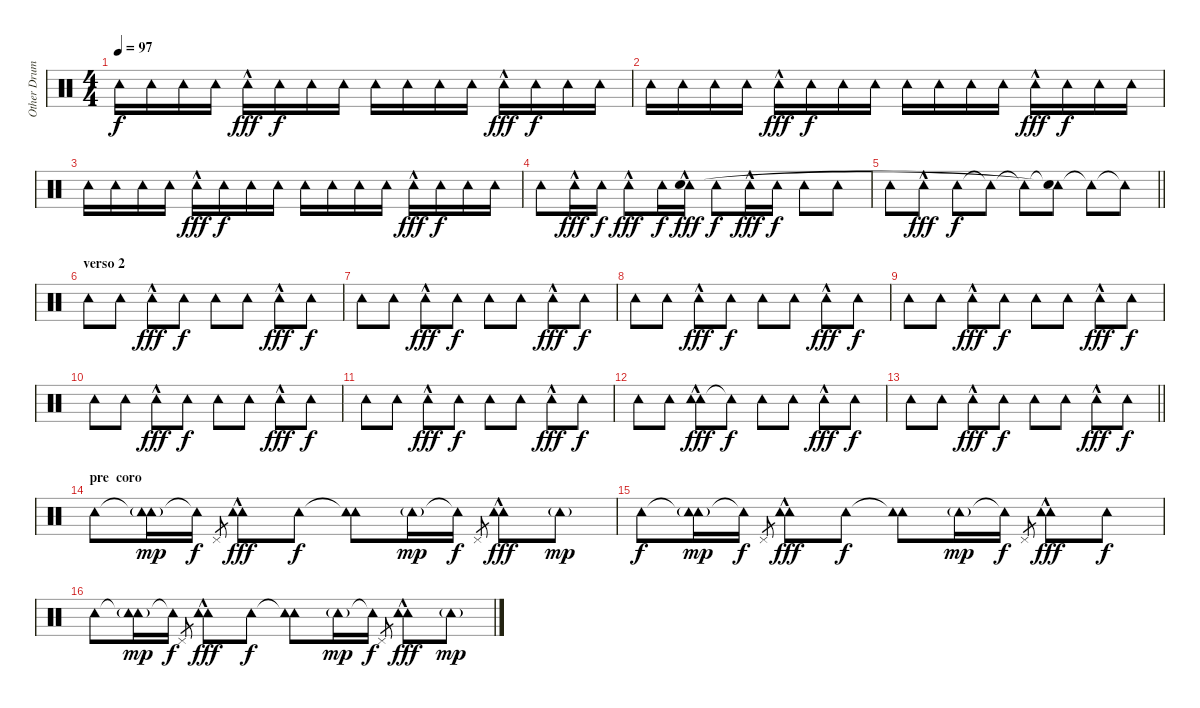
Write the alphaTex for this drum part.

\track ("Other Drumer" "Other Drum") {instrument percussion}
\staff {score}
\articulation defaults
\ts (4 4)
\tempo 97
\clef neutral
\ks c "Tambourine (hit)".16{dy f} "Tambourine (hit)".16 "Tambourine (hit)".16 "Tambourine (hit)".16 "Tambourine (hit)"{hac}.16{dy fff} "Tambourine (hit)".16{dy f} "Tambourine (hit)".16 "Tambourine (hit)".16 "Tambourine (hit)".16 "Tambourine (hit)".16 "Tambourine (hit)".16 "Tambourine (hit)".16 "Tambourine (hit)"{hac}.16{dy fff} "Tambourine (hit)".16{dy f} "Tambourine (hit)".16 "Tambourine (hit)".16
|
"Tambourine (hit)".16 "Tambourine (hit)".16 "Tambourine (hit)".16 "Tambourine (hit)".16 "Tambourine (hit)"{hac}.16{dy fff} "Tambourine (hit)".16{dy f} "Tambourine (hit)".16 "Tambourine (hit)".16 "Tambourine (hit)".16 "Tambourine (hit)".16 "Tambourine (hit)".16 "Tambourine (hit)".16 "Tambourine (hit)"{hac}.16{dy fff} "Tambourine (hit)".16{dy f} "Tambourine (hit)".16 "Tambourine (hit)".16 |
"Tambourine (hit)".16 "Tambourine (hit)".16 "Tambourine (hit)".16 "Tambourine (hit)".16 "Tambourine (hit)"{hac}.16{dy fff} "Tambourine (hit)".16{dy f} "Tambourine (hit)".16 "Tambourine (hit)".16 "Tambourine (hit)".16 "Tambourine (hit)".16 "Tambourine (hit)".16 "Tambourine (hit)".16 "Tambourine (hit)"{hac}.16{dy fff} "Tambourine (hit)".16{dy f} "Tambourine (hit)".16 "Tambourine (hit)".16 |
"Tambourine (hit)".8 "Tambourine (hit)"{hac}.16{dy fff} "Tambourine (hit)".16{dy f} "Tambourine (hit)"{hac}.8{dy fff} "Tambourine (hit)".16{dy f} ("Tambourine (hit)"{hac} "Snare (hit)").16{dy fff} "Tambourine (hit)".8{dy f} "Tambourine (hit)"{hac}.16{dy fff} "Tambourine (hit)".16{dy f} "Tambourine (hit)".8 "Tambourine (hit)".8 |
\barLineRight lightlight "Tambourine (hit)".8 "Tambourine (hit)"{hac}.8{dy fff} "Tambourine (hit)".8{dy f} "Tambourine (hit)"{t}.8 "Tambourine (hit)"{t}.8
("Tambourine (hit)"{t} "Snare (hit)"{t}).8 "Tambourine (hit)"{t}.8 "Tambourine (hit)"{t}.8 |
\section ("" "verso 2")
"Tambourine (hit)".8 "Tambourine (hit)".8 "Tambourine (hit)"{hac}.8{dy fff} "Tambourine (hit)".8{dy f} "Tambourine (hit)".8 "Tambourine (hit)".8 "Tambourine (hit)"{hac}.8{dy fff} "Tambourine (hit)".8{dy f} |
"Tambourine (hit)".8 "Tambourine (hit)".8 "Tambourine (hit)"{hac}.8{dy fff} "Tambourine (hit)".8{dy f} "Tambourine (hit)".8 "Tambourine (hit)".8 "Tambourine (hit)"{hac}.8{dy fff} "Tambourine (hit)".8{dy f} |
"Tambourine (hit)".8 "Tambourine (hit)".8 "Tambourine (hit)"{hac}.8{dy fff} "Tambourine (hit)".8{dy f} "Tambourine (hit)".8 "Tambourine (hit)".8 "Tambourine (hit)"{hac}.8{dy fff} "Tambourine (hit)".8{dy f} |
"Tambourine (hit)".8 "Tambourine (hit)".8 "Tambourine (hit)"{hac}.8{dy fff} "Tambourine (hit)".8{dy f} "Tambourine (hit)".8 "Tambourine (hit)".8 "Tambourine (hit)"{hac}.8{dy fff} "Tambourine (hit)".8{dy f} |
"Tambourine (hit)".8 "Tambourine (hit)".8 "Tambourine (hit)"{hac}.8{dy fff} "Tambourine (hit)".8{dy f} "Tambourine (hit)".8 "Tambourine (hit)".8 "Tambourine (hit)"{hac}.8{dy fff} "Tambourine (hit)".8{dy f} |
"Tambourine (hit)".8 "Tambourine (hit)".8 "Tambourine (hit)"{hac}.8{dy fff} "Tambourine (hit)".8{dy f} "Tambourine (hit)".8 "Tambourine (hit)".8 "Tambourine (hit)"{hac}.8{dy fff} "Tambourine (hit)".8{dy f} |
"Tambourine (hit)".8 "Tambourine (hit)".8 ("Tambourine (hit)"{hac} "Tambourine (hit)").8{dy fff} "Tambourine (hit)"{t}.8{dy f} "Tambourine (hit)".8 "Tambourine (hit)".8 "Tambourine (hit)"{hac}.8{dy fff} "Tambourine (hit)".8{dy f} |
\barLineRight lightlight "Tambourine (hit)".8 "Tambourine (hit)".8 "Tambourine (hit)"{hac}.8{dy fff} "Tambourine (hit)".8{dy f} "Tambourine (hit)".8 "Tambourine (hit)".8 "Tambourine (hit)"{hac}.8{dy fff} "Tambourine (hit)".8{dy f}
|
\section ("" "pre  coro")
"Tambourine (hit)".8 ("Tambourine (hit)"{t} "Tambourine (hit)"{g}).16{dy mp} "Tambourine (hit)"{t}.16{dy f} "Pedal Hi-Hat (hit)".8{gr} ("Tambourine (hit)" "Tambourine (hit)"{hac}).8{dy fff} "Tambourine (hit)".8{dy f} ("Tambourine (hit)"{t} "Tambourine (hit)").8 "Tambourine (hit)"{g}.16{dy mp} "Tambourine (hit)"{t}.16{dy f} "Pedal Hi-Hat (hit)".8{gr} ("Tambourine (hit)" "Tambourine (hit)"{hac}).8{dy fff} "Tambourine (hit)"{g}.8{dy mp} |
"Tambourine (hit)".8{dy f} ("Tambourine (hit)"{t} "Tambourine (hit)"{g}).16{dy mp} "Tambourine (hit)"{t}.16{dy f} "Pedal Hi-Hat (hit)".8{gr} ("Tambourine (hit)" "Tambourine (hit)"{hac}).8{dy fff} "Tambourine (hit)".8{dy f} ("Tambourine (hit)"{t} "Tambourine (hit)").8 "Tambourine (hit)"{g}.16{dy mp} "Tambourine (hit)"{t}.16{dy f} "Pedal Hi-Hat (hit)".8{gr} ("Tambourine (hit)" "Tambourine (hit)"{hac}).8{dy fff} "Tambourine (hit)".8{dy f} |
"Tambourine (hit)".8 ("Tambourine (hit)"{t} "Tambourine (hit)"{g}).16{dy mp} "Tambourine (hit)"{t}.16{dy f} "Pedal Hi-Hat (hit)".8{gr} ("Tambourine (hit)" "Tambourine (hit)"{hac}).8{dy fff} "Tambourine (hit)".8{dy f} ("Tambourine (hit)"{t} "Tambourine (hit)").8 "Tambourine (hit)"{g}.16{dy mp} "Tambourine (hit)"{t}.16{dy f} "Pedal Hi-Hat (hit)".8{gr} ("Tambourine (hit)" "Tambourine (hit)"{hac}).8{dy fff} "Tambourine (hit)"{g}.8{dy mp}
